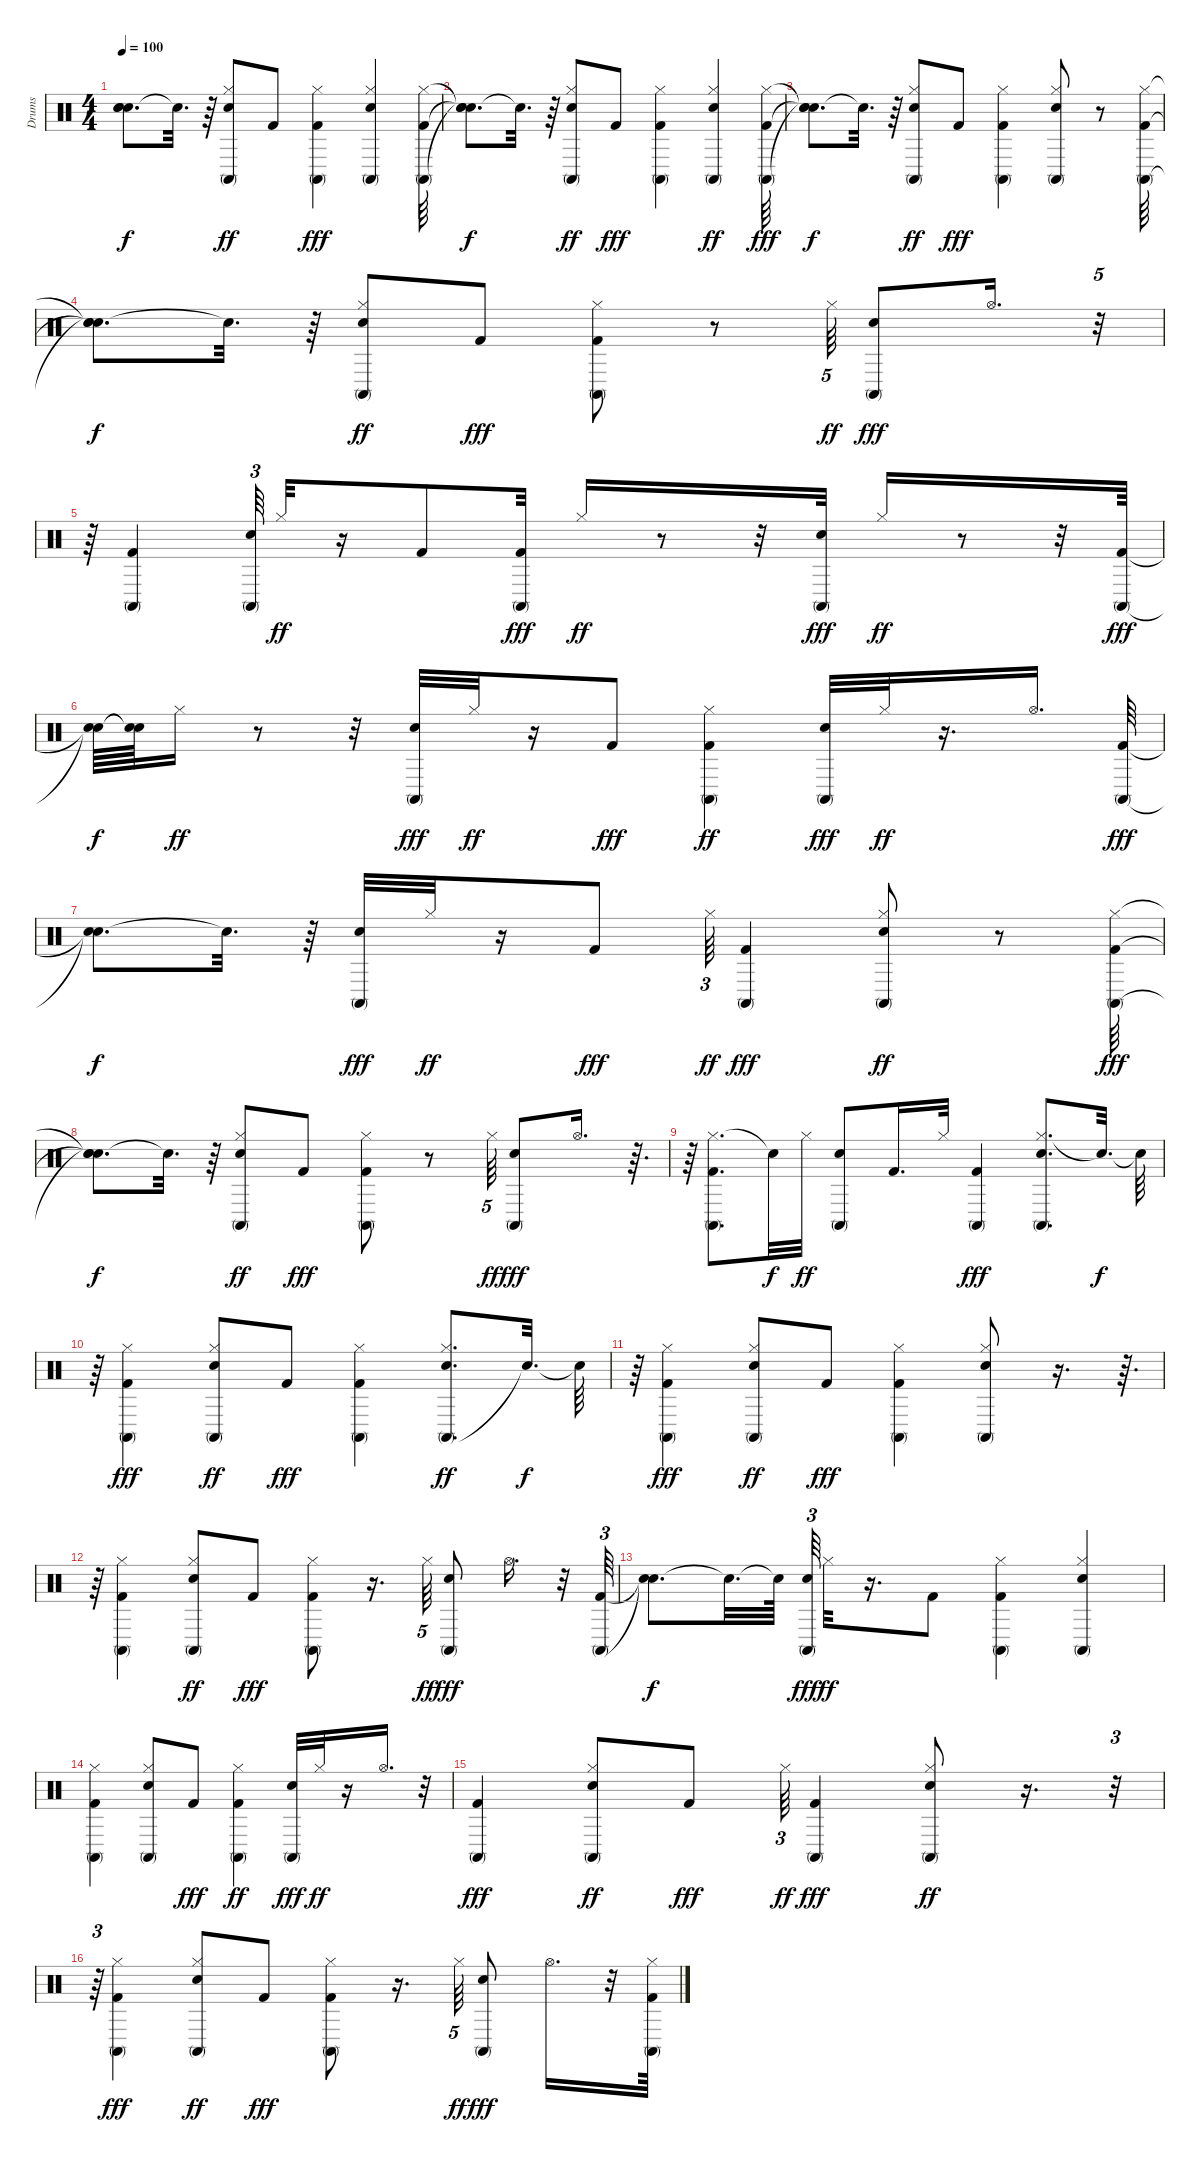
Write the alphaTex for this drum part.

\track ("Drums" "Drums") {instrument percussion}
\staff {score}
\articulation defaults
\ts (4 4)
\tempo 100
\clef neutral
\ks c
("Snare (hit)"{t} "Snare (hit)"{t} "Snare (hit)"{t}).8{d dy f} "Snare (hit)"{t}.32{d} r.64 ("Hi-Hat (closed)" "Snare (hit) 2" "Conga high (mute)").8{dy ff} "Kick (hit) 2".8 ("Hi-Hat (closed)" "Kick (hit) 2" "Conga high (mute)").4{dy fff} ("Hi-Hat (closed)" "Snare (hit) 2" "Conga high (mute)").4 ("Hi-Hat (closed)" "Kick (hit) 2" "Conga high (mute)").64 |
("Snare (hit)"{t} "Snare (hit)"{t} "Snare (hit)"{t}).8{d dy f} "Snare (hit)"{t}.32{d} r.64 ("Snare (hit) 2" "Conga high (mute)" "Hi-Hat (closed)").8{dy ff} "Kick (hit) 2".8{dy fff} ("Hi-Hat (closed)" "Kick (hit) 2" "Conga high (mute)").4 ("Snare (hit) 2" "Conga high (mute)" "Hi-Hat (closed)").4{dy ff} ("Hi-Hat (closed)" "Kick (hit) 2" "Conga high (mute)").64{dy fff} |
("Snare (hit)"{t} "Snare (hit)"{t} "Snare (hit)"{t}).8{d dy f} "Snare (hit)"{t}.32{d} r.64 ("Snare (hit) 2" "Conga high (mute)" "Hi-Hat (closed)").8{dy ff} "Kick (hit) 2".8{dy fff} ("Hi-Hat (closed)" "Kick (hit) 2" "Conga high (mute)").4 ("Hi-Hat (closed)" "Snare (hit) 2" "Conga high (mute)").8 r.8 ("Hi-Hat (closed)" "Kick (hit) 2" "Conga high (mute)").64 |
("Snare (hit)"{t} "Snare (hit)"{t} "Snare (hit)"{t}).8{d dy f} "Snare (hit)"{t}.32{d} r.64 ("Snare (hit) 2" "Conga high (mute)" "Hi-Hat (closed)").8{dy ff} "Kick (hit) 2".8{dy fff} ("Hi-Hat (closed)" "Kick (hit) 2" "Conga high (mute)").8 r.8 "Hi-Hat (closed)".64{tu (5 4) dy ff} ("Conga high (mute)" "Snare (hit) 2").8{dy fff} "Hi-Hat (open)".16{d} r.32{tu (5 4)} |
r.64 ("Conga high (mute)" "Kick (hit) 2").4 ("Snare (hit) 2" "Conga high (mute)").64{tu (3 2)} "Hi-Hat (closed)".32{dy ff} r.16 "Kick (hit) 2".8 ("Kick (hit) 2" "Conga high (mute)").32{dy fff} "Hi-Hat (closed)".16{dy ff} r.8 r.32 ("Snare (hit) 2" "Conga high (mute)").32{dy fff} "Hi-Hat (closed)".16{dy ff} r.8 r.32 ("Kick (hit) 2" "Conga high (mute)").64{dy fff} |
("Snare (hit)"{t} "Snare (hit)"{t}).64{dy f} ("Snare (hit)"{t} "Snare (hit)"{t}).64 "Hi-Hat (closed)".16{dy ff} r.8 r.32 ("Snare (hit) 2" "Conga high (mute)").32{dy fff} "Hi-Hat (closed)".32{dy ff} r.16 "Kick (hit) 2".8{dy fff} ("Conga high (mute)" "Kick (hit) 2" "Hi-Hat (closed)").4{dy ff} ("Snare (hit) 2" "Conga high (mute)").32{dy fff} "Hi-Hat (closed)".32{dy ff} r.16{d} "Hi-Hat (open)".16{d} ("Conga high (mute)" "Kick (hit) 2").64{dy fff} |
("Snare (hit)"{t} "Snare (hit)"{t}).8{d dy f} "Snare (hit)"{t}.32{d} r.64 ("Snare (hit) 2" "Conga high (mute)").32{dy fff} "Hi-Hat (closed)".32{dy ff} r.16 "Kick (hit) 2".8{dy fff} "Hi-Hat (closed)".64{tu (3 2) dy ff} ("Conga high (mute)" "Kick (hit) 2").4{dy fff} ("Snare (hit) 2" "Conga high (mute)" "Hi-Hat (closed)").8{dy ff} r.8 ("Hi-Hat (closed)" "Kick (hit) 2" "Conga high (mute)").64{dy fff} |
("Snare (hit)"{t} "Snare (hit)"{t} "Snare (hit)"{t}).8{d dy f} "Snare (hit)"{t}.32{d} r.64 ("Snare (hit) 2" "Conga high (mute)" "Hi-Hat (closed)").8{dy ff volume 16} "Kick (hit) 2".8{dy fff volume 15} ("Hi-Hat (closed)" "Kick (hit) 2" "Conga high (mute)").8{volume 15} r.8 "Hi-Hat (closed)".64{tu (5 4) dy ff volume 15} ("Conga high (mute)" "Snare (hit) 2").8{dy fff volume 15} "Hi-Hat (open)".16{d volume 15} r.64{d} |
r.64 ("Hi-Hat (closed)" "Conga high (mute)" "Kick (hit) 2").8{d volume 15} "Snare (hit)"{t}.32{dy f} "Hi-Hat (closed)".32{dy ff volume 14} ("Conga high (mute)" "Snare (hit) 2").8 "Kick (hit) 2".16{d volume 14} "Hi-Hat (closed)".32{volume 14} ("Conga high (mute)" "Kick (hit) 2").4{dy fff} ("Hi-Hat (closed)" "Conga high (mute)" "Snare (hit) 2").8{d volume 14} "Snare (hit)"{t}.32{d dy f} "Snare (hit)"{t}.64 |
r.64 ("Hi-Hat (closed)" "Conga high (mute)" "Kick (hit) 2").4{dy fff volume 13} ("Conga high (mute)" "Snare (hit) 2" "Hi-Hat (closed)").8{dy ff volume 13} "Kick (hit) 2".8{dy fff volume 13} ("Hi-Hat (closed)" "Conga high (mute)" "Kick (hit) 2").4{volume 13} ("Conga high (mute)" "Snare (hit) 2" "Hi-Hat (closed)").8{d dy ff volume 12} "Snare (hit)"{t}.32{d dy f} "Snare (hit)"{t}.64 |
r.64 ("Hi-Hat (closed)" "Conga high (mute)" "Kick (hit) 2").4{dy fff volume 12} ("Conga high (mute)" "Snare (hit) 2" "Hi-Hat (closed)").8{dy ff volume 12} "Kick (hit) 2".8{dy fff volume 12} ("Hi-Hat (closed)" "Conga high (mute)" "Kick (hit) 2").4{volume 11} ("Hi-Hat (closed)" "Conga high (mute)" "Snare (hit) 2").8{volume 11} r.16{d} r.64{d} |
r.64 ("Hi-Hat (closed)" "Kick (hit) 2" "Conga high (mute)").4{volume 11} ("Snare (hit) 2" "Conga high (mute)" "Hi-Hat (closed)").8{dy ff volume 10} "Kick (hit) 2".8{dy fff volume 10} ("Hi-Hat (closed)" "Kick (hit) 2" "Conga high (mute)").8{volume 10} r.16{d} "Hi-Hat (closed)".64{tu (5 4) dy ff volume 10} ("Conga high (mute)" "Snare (hit) 2").8{dy fff volume 10} "Hi-Hat (open)".16{d volume 10} r.32 ("Conga high (mute)" "Kick (hit) 2").64{tu (3 2) volume 10} |
("Snare (hit)"{t} "Snare (hit)"{t}).8{d dy f} "Snare (hit)"{t}.32{d} "Snare (hit)"{t}.64 ("Snare (hit) 2" "Conga high (mute)").64{tu (3 2) dy fff volume 9} "Hi-Hat (closed)".32{dy ff} r.16{d} "Kick (hit) 2".8{volume 9} ("Kick (hit) 2" "Conga high (mute)" "Hi-Hat (closed)").4{volume 9} ("Snare (hit) 2" "Conga high (mute)" "Hi-Hat (closed)").4{volume 8} |
("Kick (hit) 2" "Conga high (mute)" "Hi-Hat (closed)").4{volume 8} ("Snare (hit) 2" "Conga high (mute)" "Hi-Hat (closed)").8{volume 8} "Kick (hit) 2".8{dy fff volume 8} ("Conga high (mute)" "Kick (hit) 2" "Hi-Hat (closed)").4{dy ff volume 8} ("Snare (hit) 2" "Conga high (mute)").32{dy fff volume 7} "Hi-Hat (closed)".32{dy ff} r.16 "Hi-Hat (open)".16{d volume 7} r.32 |
("Conga high (mute)" "Kick (hit) 2").4{dy fff volume 7} ("Snare (hit) 2" "Conga high (mute)" "Hi-Hat (closed)").8{dy ff volume 7} "Kick (hit) 2".8{dy fff volume 6} "Hi-Hat (closed)".64{tu (3 2) dy ff volume 6} ("Conga high (mute)" "Kick (hit) 2").4{dy fff volume 6} ("Snare (hit) 2" "Conga high (mute)" "Hi-Hat (closed)").8{dy ff volume 6} r.16{d} r.32{tu (3 2)} |
r.64{tu (3 2)} ("Hi-Hat (closed)" "Kick (hit) 2" "Conga high (mute)").4{dy fff volume 6} ("Snare (hit) 2" "Conga high (mute)" "Hi-Hat (closed)").8{dy ff volume 5} "Kick (hit) 2".8{dy fff volume 5} ("Hi-Hat (closed)" "Kick (hit) 2" "Conga high (mute)").8{volume 5} r.16{d} "Hi-Hat (closed)".64{tu (5 4) dy ff volume 5} ("Conga high (mute)" "Snare (hit) 2").8{dy fff} "Hi-Hat (open)".16{d volume 4} r.32 ("Hi-Hat (closed)" "Conga high (mute)" "Kick (hit) 2").64
